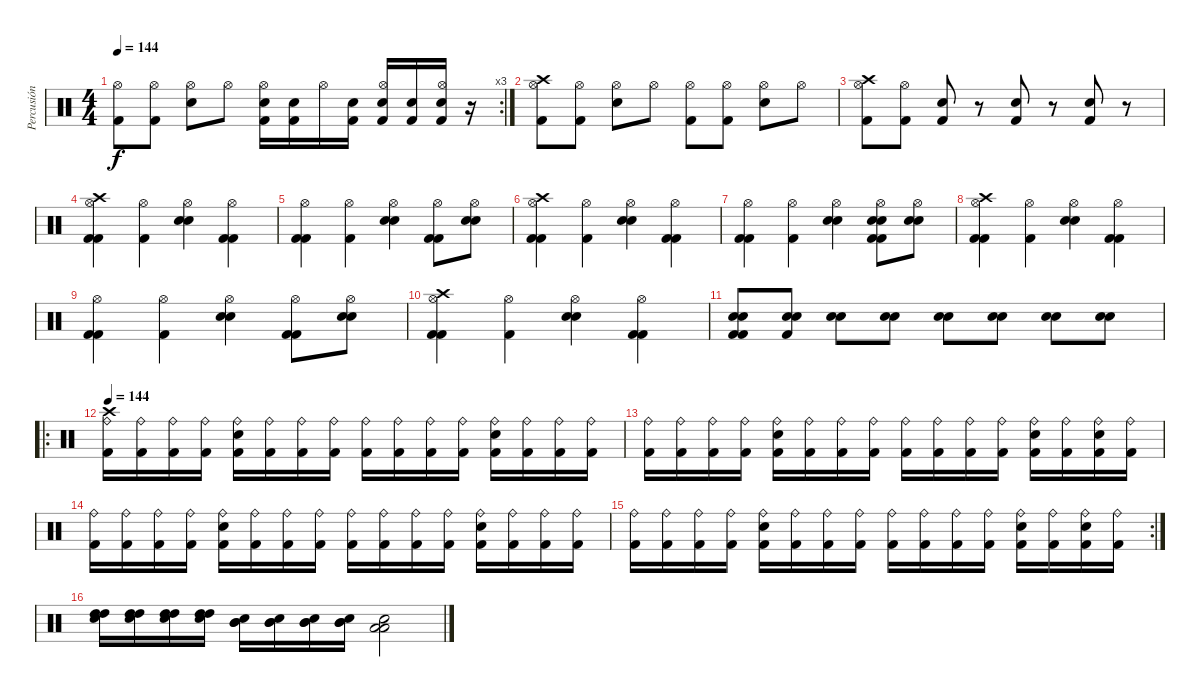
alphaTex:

\track ("Percusión" "Percusión") {instrument percussion}
\staff {score}
\articulation defaults
\rc 3
\ts (4 4)
\tempo 144
\clef neutral
\ks c
("Kick (hit) 2" "Hi-Hat (open)").8{dy f} ("Kick (hit) 2" "Hi-Hat (open)").8 ("Hi-Hat (open)" "Electric Snare (hit)").8 "Hi-Hat (open)".8 ("Kick (hit) 2" "Hi-Hat (open)" "Electric Snare (hit)").16 ("Kick (hit) 2" "Electric Snare (hit)").16 "Hi-Hat (open)".16 ("Kick (hit) 2" "Electric Snare (hit)").16 ("Kick (hit) 2" "Hi-Hat (open)" "Electric Snare (hit)").16 ("Kick (hit) 2" "Electric Snare (hit)").16 ("Kick (hit) 2" "Hi-Hat (open)" "Electric Snare (hit)").16 r.16 |
("Kick (hit) 2" "Hi-Hat (open)" "Crash high (hit)").8 ("Kick (hit) 2" "Hi-Hat (open)").8 ("Hi-Hat (open)" "Electric Snare (hit)").8 "Hi-Hat (open)".8 ("Kick (hit) 2" "Hi-Hat (open)").8 ("Kick (hit) 2" "Hi-Hat (open)").8 ("Hi-Hat (open)" "Electric Snare (hit)").8 "Hi-Hat (open)".8 |
("Kick (hit) 2" "Hi-Hat (open)" "Crash high (hit)").8 ("Kick (hit) 2" "Hi-Hat (open)").8 ("Kick (hit) 2" "Electric Snare (hit)").8 r.8 ("Kick (hit) 2" "Electric Snare (hit)").8 r.8 ("Kick (hit) 2" "Electric Snare (hit)").8 r.8 |
("Crash high (hit)" "Kick (hit) 2" "Kick (hit) 2" "Hi-Hat (open)").4 ("Kick (hit) 2" "Hi-Hat (open)").4 ("Electric Snare (hit)" "Electric Snare (hit)" "Hi-Hat (open)").4 ("Kick (hit) 2" "Kick (hit) 2" "Hi-Hat (open)").4 |
("Kick (hit) 2" "Kick (hit) 2" "Hi-Hat (open)").4 ("Kick (hit) 2" "Hi-Hat (open)").4 ("Electric Snare (hit)" "Electric Snare (hit)" "Hi-Hat (open)").4 ("Kick (hit) 2" "Kick (hit) 2" "Hi-Hat (open)").8 ("Electric Snare (hit)" "Electric Snare (hit)" "Hi-Hat (open)").8 |
("Crash high (hit)" "Kick (hit) 2" "Kick (hit) 2" "Hi-Hat (open)").4 ("Kick (hit) 2" "Hi-Hat (open)").4 ("Electric Snare (hit)" "Electric Snare (hit)" "Hi-Hat (open)").4 ("Kick (hit) 2" "Kick (hit) 2" "Hi-Hat (open)").4 |
("Kick (hit) 2" "Kick (hit) 2" "Hi-Hat (open)").4 ("Kick (hit) 2" "Hi-Hat (open)").4 ("Electric Snare (hit)" "Electric Snare (hit)" "Hi-Hat (open)").4 ("Electric Snare (hit)" "Electric Snare (hit)" "Kick (hit) 2" "Kick (hit) 2" "Hi-Hat (open)").8 ("Electric Snare (hit)" "Electric Snare (hit)" "Hi-Hat (open)").8 |
("Crash high (hit)" "Kick (hit) 2" "Kick (hit) 2" "Hi-Hat (open)").4 ("Kick (hit) 2" "Hi-Hat (open)").4 ("Electric Snare (hit)" "Electric Snare (hit)" "Hi-Hat (open)").4 ("Kick (hit) 2" "Kick (hit) 2" "Hi-Hat (open)").4 |
("Kick (hit) 2" "Kick (hit) 2" "Hi-Hat (open)").4 ("Kick (hit) 2" "Hi-Hat (open)").4 ("Electric Snare (hit)" "Electric Snare (hit)" "Hi-Hat (open)").4 ("Kick (hit) 2" "Kick (hit) 2" "Hi-Hat (open)").8 ("Hi-Hat (open)" "Electric Snare (hit)" "Electric Snare (hit)").8 |
("Crash high (hit)" "Kick (hit) 2" "Kick (hit) 2" "Hi-Hat (open)").4 ("Kick (hit) 2" "Hi-Hat (open)").4 ("Electric Snare (hit)" "Electric Snare (hit)" "Hi-Hat (open)").4 ("Kick (hit) 2" "Kick (hit) 2" "Hi-Hat (open)").4 |
("Electric Snare (hit)" "Electric Snare (hit)" "Kick (hit) 2" "Kick (hit) 2").8 ("Electric Snare (hit)" "Electric Snare (hit)" "Kick (hit) 2").8 ("Electric Snare (hit)" "Electric Snare (hit)").8 ("Electric Snare (hit)" "Electric Snare (hit)").8 ("Electric Snare (hit)" "Electric Snare (hit)").8 ("Electric Snare (hit)" "Electric Snare (hit)").8 ("Electric Snare (hit)" "Electric Snare (hit)").8 ("Electric Snare (hit)" "Electric Snare (hit)").8 |
\ro
\tempo 144
("Ride (bell)" "Kick (hit) 2" "Crash high (hit)").16 ("Ride (bell)" "Kick (hit) 2").16 ("Ride (bell)" "Kick (hit) 2").16 ("Ride (bell)" "Kick (hit) 2").16 ("Ride (bell)" "Kick (hit) 2" "Electric Snare (hit)").16 ("Ride (bell)" "Kick (hit) 2").16 ("Ride (bell)" "Kick (hit) 2").16 ("Ride (bell)" "Kick (hit) 2").16 ("Ride (bell)" "Kick (hit) 2").16 ("Ride (bell)" "Kick (hit) 2").16 ("Ride (bell)" "Kick (hit) 2").16 ("Ride (bell)" "Kick (hit) 2").16 ("Ride (bell)" "Kick (hit) 2" "Electric Snare (hit)").16 ("Ride (bell)" "Kick (hit) 2").16 ("Ride (bell)" "Kick (hit) 2").16 ("Ride (bell)" "Kick (hit) 2").16 |
("Ride (bell)" "Kick (hit) 2").16 ("Ride (bell)" "Kick (hit) 2").16 ("Ride (bell)" "Kick (hit) 2").16 ("Ride (bell)" "Kick (hit) 2").16 ("Ride (bell)" "Kick (hit) 2" "Electric Snare (hit)").16 ("Ride (bell)" "Kick (hit) 2").16 ("Ride (bell)" "Kick (hit) 2").16 ("Ride (bell)" "Kick (hit) 2").16 ("Ride (bell)" "Kick (hit) 2").16 ("Ride (bell)" "Kick (hit) 2").16 ("Ride (bell)" "Kick (hit) 2").16 ("Ride (bell)" "Kick (hit) 2").16 ("Ride (bell)" "Kick (hit) 2" "Electric Snare (hit)").16 ("Ride (bell)" "Kick (hit) 2").16 ("Ride (bell)" "Kick (hit) 2" "Electric Snare (hit)").16 ("Ride (bell)" "Kick (hit) 2").16 |
("Ride (bell)" "Kick (hit) 2").16 ("Ride (bell)" "Kick (hit) 2").16 ("Ride (bell)" "Kick (hit) 2").16 ("Ride (bell)" "Kick (hit) 2").16 ("Ride (bell)" "Kick (hit) 2" "Electric Snare (hit)").16 ("Ride (bell)" "Kick (hit) 2").16 ("Ride (bell)" "Kick (hit) 2").16 ("Ride (bell)" "Kick (hit) 2").16 ("Ride (bell)" "Kick (hit) 2").16 ("Ride (bell)" "Kick (hit) 2").16 ("Ride (bell)" "Kick (hit) 2").16 ("Ride (bell)" "Kick (hit) 2").16 ("Ride (bell)" "Kick (hit) 2" "Electric Snare (hit)").16 ("Ride (bell)" "Kick (hit) 2").16 ("Ride (bell)" "Kick (hit) 2").16 ("Ride (bell)" "Kick (hit) 2").16 |
\rc 2
("Ride (bell)" "Kick (hit) 2").16 ("Ride (bell)" "Kick (hit) 2").16 ("Ride (bell)" "Kick (hit) 2").16 ("Ride (bell)" "Kick (hit) 2").16 ("Ride (bell)" "Kick (hit) 2" "Electric Snare (hit)").16 ("Ride (bell)" "Kick (hit) 2").16 ("Ride (bell)" "Kick (hit) 2").16 ("Ride (bell)" "Kick (hit) 2").16 ("Ride (bell)" "Kick (hit) 2").16 ("Ride (bell)" "Kick (hit) 2").16 ("Ride (bell)" "Kick (hit) 2").16 ("Ride (bell)" "Kick (hit) 2").16 ("Ride (bell)" "Kick (hit) 2" "Electric Snare (hit)").16 ("Ride (bell)" "Kick (hit) 2").16 ("Ride (bell)" "Kick (hit) 2" "Electric Snare (hit)").16 ("Ride (bell)" "Kick (hit) 2").16 |
("High Tom (hit)" "High Tom (hit)" "Electric Snare (hit)").16{volume 13} ("High Tom (hit)" "High Tom (hit)" "Electric Snare (hit)").16 ("High Tom (hit)" "High Tom (hit)" "Electric Snare (hit)").16 ("High Tom (hit)" "High Tom (hit)" "Electric Snare (hit)").16 ("Mid Tom (hit)" "Mid Tom (hit)" "Electric Snare (hit)").16 ("Mid Tom (hit)" "Mid Tom (hit)" "Electric Snare (hit)").16 ("Mid Tom (hit)" "Mid Tom (hit)" "Electric Snare (hit)").16 ("Mid Tom (hit)" "Mid Tom (hit)" "Electric Snare (hit)").16 ("Low Tom (hit)" "Low Tom (hit)" "Electric Snare (hit)").2
